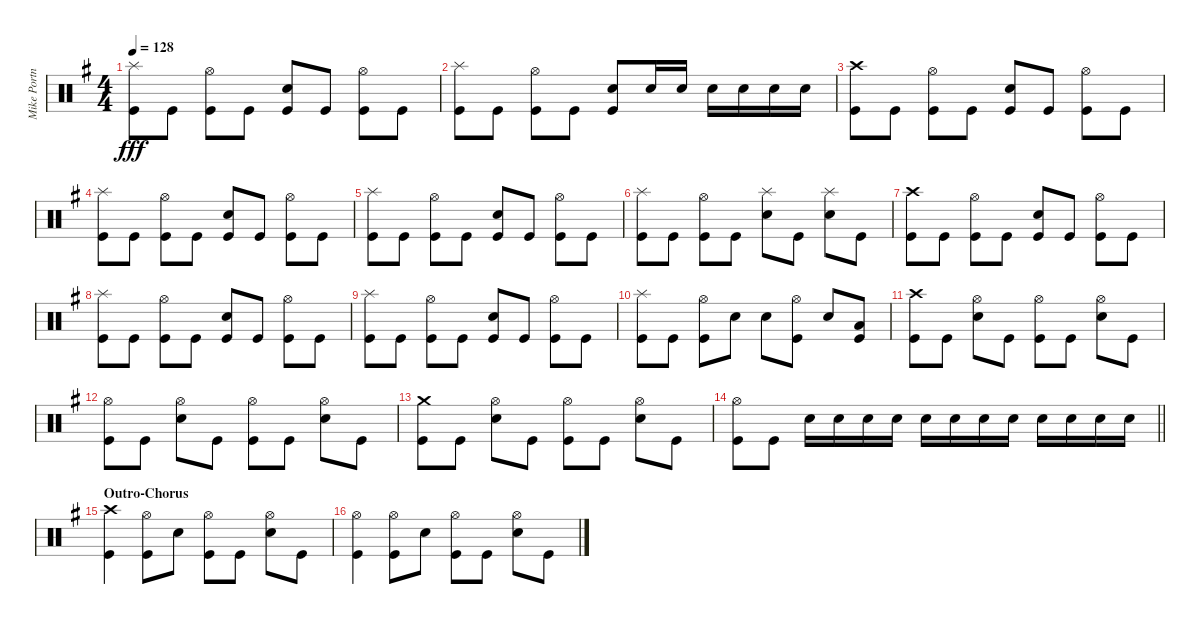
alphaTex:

\track ("Mike Portnoy" "Mike Portn") {instrument percussion}
\staff {score}
\articulation defaults
\ts (4 4)
\tempo 128
\clef neutral
\ks eminor
("Kick (hit)" "Splash (hit)").8{dy fff} "Kick (hit)".8 ("Kick (hit)" "Hi-Hat (open)").8 "Kick (hit)".8 ("Snare (hit) 2" "Kick (hit)").8 "Kick (hit)".8 ("Kick (hit)" "Hi-Hat (open)").8 "Kick (hit)".8 |
("Kick (hit)" "Splash (hit)").8 "Kick (hit)".8 ("Kick (hit)" "Hi-Hat (open)").8 "Kick (hit)".8 ("Snare (hit) 2" "Kick (hit)").8 "Snare (hit) 2".16 "Snare (hit) 2".16 "Snare (hit) 2".16 "Snare (hit) 2".16 "Snare (hit) 2".16 "Snare (hit) 2".16 |
("Kick (hit)" "Crash high (hit)").8 "Kick (hit)".8 ("Kick (hit)" "Hi-Hat (open)").8 "Kick (hit)".8 ("Kick (hit)" "Snare (hit) 2").8 "Kick (hit)".8 ("Kick (hit)" "Hi-Hat (open)").8 "Kick (hit)".8 |
("Kick (hit)" "Splash (hit)").8 "Kick (hit)".8 ("Kick (hit)" "Hi-Hat (open)").8 "Kick (hit)".8 ("Snare (hit) 2" "Kick (hit)").8 "Kick (hit)".8 ("Kick (hit)" "Hi-Hat (open)").8 "Kick (hit)".8 |
("Kick (hit)" "Splash (hit)").8 "Kick (hit)".8 ("Kick (hit)" "Hi-Hat (open)").8 "Kick (hit)".8 ("Snare (hit) 2" "Kick (hit)").8 "Kick (hit)".8 ("Kick (hit)" "Hi-Hat (open)").8 "Kick (hit)".8 |
("Kick (hit)" "Splash (hit)").8 "Kick (hit)".8 ("Kick (hit)" "Hi-Hat (open)").8 "Kick (hit)".8 ("Snare (hit) 2" "Splash (hit)").8 "Kick (hit)".8 ("Snare (hit) 2" "Splash (hit)").8 "Kick (hit)".8 |
("Kick (hit)" "Crash high (hit)").8 "Kick (hit)".8 ("Kick (hit)" "Hi-Hat (open)").8 "Kick (hit)".8 ("Kick (hit)" "Snare (hit) 2").8 "Kick (hit)".8 ("Kick (hit)" "Hi-Hat (open)").8 "Kick (hit)".8 |
("Kick (hit)" "Splash (hit)").8 "Kick (hit)".8 ("Kick (hit)" "Hi-Hat (open)").8 "Kick (hit)".8 ("Snare (hit) 2" "Kick (hit)").8 "Kick (hit)".8 ("Kick (hit)" "Hi-Hat (open)").8 "Kick (hit)".8 |
("Kick (hit)" "Splash (hit)").8 "Kick (hit)".8 ("Kick (hit)" "Hi-Hat (open)").8 "Kick (hit)".8 ("Snare (hit) 2" "Kick (hit)").8 "Kick (hit)".8 ("Kick (hit)" "Hi-Hat (open)").8 "Kick (hit)".8 |
("Kick (hit)" "Splash (hit)").8 "Kick (hit)".8 ("Kick (hit)" "Hi-Hat (open)").8 "Snare (hit) 2".8 "Snare (hit) 2".8 ("Kick (hit)" "Hi-Hat (open)").8 "Snare (hit) 2".8 ("Kick (hit)" "Low Floor Tom (hit)").8 |
("Kick (hit)" "Crash high (hit)").8 "Kick (hit)".8 ("Snare (hit) 2" "Hi-Hat (open)").8 "Kick (hit)".8 ("Kick (hit)" "Hi-Hat (open)").8 "Kick (hit)".8 ("Snare (hit) 2" "Hi-Hat (open)").8 "Kick (hit)".8 |
("Kick (hit)" "Hi-Hat (open)").8 "Kick (hit)".8 ("Snare (hit) 2" "Hi-Hat (open)").8 "Kick (hit)".8 ("Kick (hit)" "Hi-Hat (open)").8 "Kick (hit)".8 ("Snare (hit) 2" "Hi-Hat (open)").8 "Kick (hit)".8 |
("Kick (hit)" "Crash medium (hit)").8 "Kick (hit)".8 ("Snare (hit) 2" "Hi-Hat (open)").8 "Kick (hit)".8 ("Kick (hit)" "Hi-Hat (open)").8 "Kick (hit)".8 ("Snare (hit) 2" "Hi-Hat (open)").8 "Kick (hit)".8 |
\barLineRight lightlight
("Kick (hit)" "Hi-Hat (open)").8 "Kick (hit)".8 "Snare (hit) 2".16 "Snare (hit) 2".16 "Snare (hit) 2".16 "Snare (hit) 2".16 "Snare (hit) 2".16 "Snare (hit) 2".16 "Snare (hit) 2".16 "Snare (hit) 2".16 "Snare (hit) 2".16 "Snare (hit) 2".16 "Snare (hit) 2".16 "Snare (hit) 2".16 |
\section ("" "Outro-Chorus")
("Kick (hit)" "Crash high (hit)").4 ("Kick (hit)" "Hi-Hat (open)").8 "Snare (hit) 2".8 ("Kick (hit)" "Hi-Hat (open)").8 "Kick (hit)".8 ("Snare (hit) 2" "Hi-Hat (open)").8 "Kick (hit)".8 |
("Kick (hit)" "Hi-Hat (open)").4 ("Kick (hit)" "Hi-Hat (open)").8 "Snare (hit) 2".8 ("Kick (hit)" "Hi-Hat (open)").8 "Kick (hit)".8 ("Snare (hit) 2" "Hi-Hat (open)").8 "Kick (hit)".8
